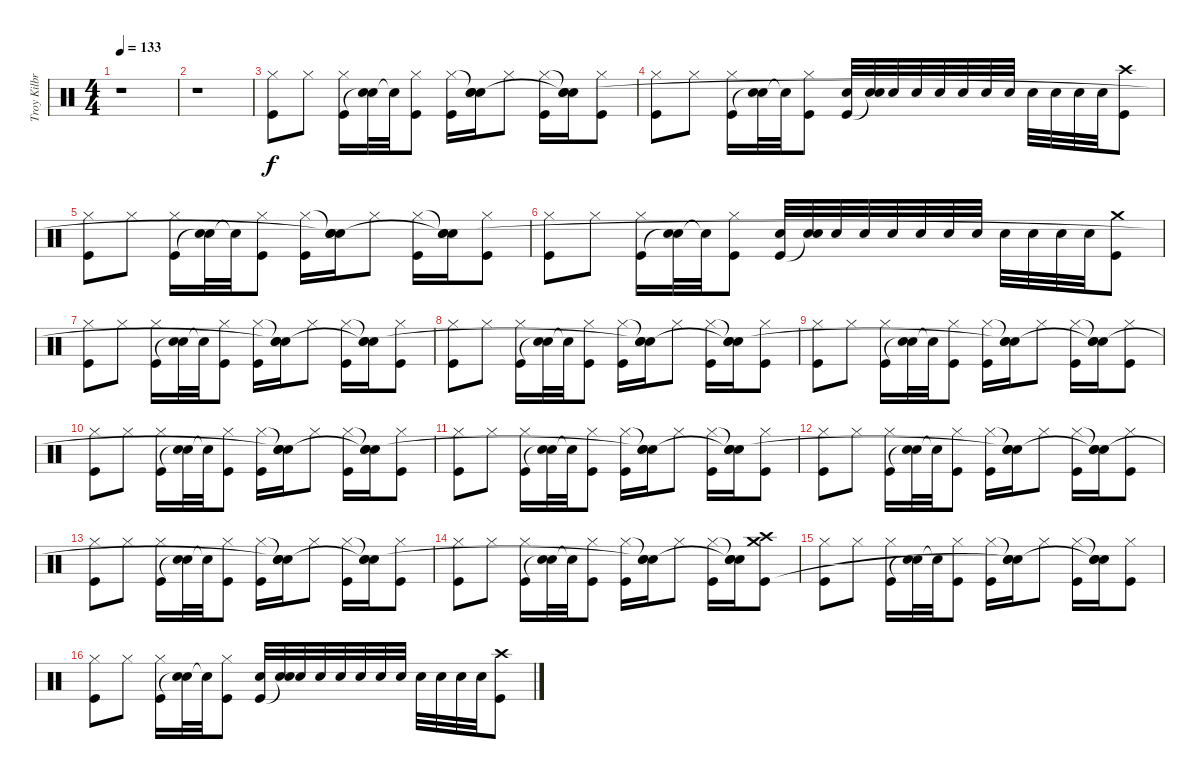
\track ("Troy Kilbride" "Troy Kilbr") {instrument percussion}
\staff {score}
\articulation defaults
\ts (4 4)
\tempo 133
\clef neutral
\ks c
r.1{dy f} |
r.1 |
("Hi-Hat (closed)" "Kick (hit)").8 "Hi-Hat (closed)".8 ("Hi-Hat (closed)" "Kick (hit)").16 ("Electric Snare (hit)" "Snare (hit)"{t}).32 "Snare (hit)"{t}.32 ("Hi-Hat (closed)" "Kick (hit)").8 ("Hi-Hat (closed)" "Kick (hit)").16 ("Snare (hit)"{t} "Electric Snare (hit)" "Snare (hit)").16 "Hi-Hat (closed)".8 ("Hi-Hat (closed)" "Kick (hit)").16 ("Snare (hit)"{t} "Electric Snare (hit)" "Snare (hit)"{t}).16 ("Hi-Hat (closed)" "Kick (hit)").8 |
("Hi-Hat (closed)" "Kick (hit)").8 "Hi-Hat (closed)".8 ("Hi-Hat (closed)" "Kick (hit)").16 ("Electric Snare (hit)" "Snare (hit)"{t}).32 "Snare (hit)"{t}.32 ("Hi-Hat (closed)" "Kick (hit)").8 ("Electric Snare (hit)" "Kick (hit)").32 ("Electric Snare (hit)" "Snare (hit)"{t}).32 "Electric Snare (hit)".32 "Electric Snare (hit)".32 "Electric Snare (hit)".32 "Electric Snare (hit)".32 "Electric Snare (hit)".32 "Electric Snare (hit)".32 "Electric Snare (hit)".32 "Electric Snare (hit)".32 "Electric Snare (hit)".32 "Electric Snare (hit)".32 ("Crash high (hit)" "Kick (hit)").8 |
("Hi-Hat (closed)" "Kick (hit)").8 "Hi-Hat (closed)".8 ("Hi-Hat (closed)" "Kick (hit)").16 ("Electric Snare (hit)" "Snare (hit)"{t}).32 "Snare (hit)"{t}.32 ("Hi-Hat (closed)" "Kick (hit)").8 ("Hi-Hat (closed)" "Kick (hit)").16 ("Snare (hit)"{t} "Electric Snare (hit)" "Snare (hit)"{t}).16 "Hi-Hat (closed)".8 ("Hi-Hat (closed)" "Kick (hit)").16 ("Snare (hit)"{t} "Electric Snare (hit)" "Snare (hit)"{t}).16 ("Hi-Hat (closed)" "Kick (hit)").8 |
("Hi-Hat (closed)" "Kick (hit)").8 "Hi-Hat (closed)".8 ("Hi-Hat (closed)" "Kick (hit)").16 ("Electric Snare (hit)" "Snare (hit)"{t}).32 "Snare (hit)"{t}.32 ("Hi-Hat (closed)" "Kick (hit)").8 ("Electric Snare (hit)" "Kick (hit)").32 ("Electric Snare (hit)" "Snare (hit)"{t}).32 "Electric Snare (hit)".32 "Electric Snare (hit)".32 "Electric Snare (hit)".32 "Electric Snare (hit)".32 "Electric Snare (hit)".32 "Electric Snare (hit)".32 "Electric Snare (hit)".32 "Electric Snare (hit)".32 "Electric Snare (hit)".32 "Electric Snare (hit)".32 ("Crash medium (hit)" "Kick (hit)").8 |
("Hi-Hat (closed)" "Kick (hit)").8 "Hi-Hat (closed)".8 ("Hi-Hat (closed)" "Kick (hit)").16 ("Electric Snare (hit)" "Snare (hit)"{t}).32 "Snare (hit)"{t}.32 ("Hi-Hat (closed)" "Kick (hit)").8 ("Hi-Hat (closed)" "Kick (hit)").16 ("Snare (hit)"{t} "Electric Snare (hit)" "Snare (hit)"{t}).16 "Hi-Hat (closed)".8 ("Hi-Hat (closed)" "Kick (hit)").16 ("Snare (hit)"{t} "Electric Snare (hit)" "Snare (hit)"{t}).16 ("Hi-Hat (closed)" "Kick (hit)").8 |
("Hi-Hat (closed)" "Kick (hit)").8 "Hi-Hat (closed)".8 ("Hi-Hat (closed)" "Kick (hit)").16 ("Electric Snare (hit)" "Snare (hit)"{t}).32 "Snare (hit)"{t}.32 ("Hi-Hat (closed)" "Kick (hit)").8 ("Hi-Hat (closed)" "Kick (hit)").16 ("Snare (hit)"{t} "Electric Snare (hit)" "Snare (hit)"{t}).16 "Hi-Hat (closed)".8 ("Hi-Hat (closed)" "Kick (hit)").16 ("Snare (hit)"{t} "Electric Snare (hit)" "Snare (hit)"{t}).16 ("Hi-Hat (closed)" "Kick (hit)").8 |
("Hi-Hat (closed)" "Kick (hit)").8 "Hi-Hat (closed)".8 ("Hi-Hat (closed)" "Kick (hit)").16 ("Electric Snare (hit)" "Snare (hit)"{t}).32 "Snare (hit)"{t}.32 ("Hi-Hat (closed)" "Kick (hit)").8 ("Hi-Hat (closed)" "Kick (hit)").16 ("Snare (hit)"{t} "Electric Snare (hit)" "Snare (hit)"{t}).16 "Hi-Hat (closed)".8 ("Hi-Hat (closed)" "Kick (hit)").16 ("Snare (hit)"{t} "Electric Snare (hit)" "Snare (hit)"{t}).16 ("Hi-Hat (closed)" "Kick (hit)").8 |
("Hi-Hat (closed)" "Kick (hit)").8 "Hi-Hat (closed)".8 ("Hi-Hat (closed)" "Kick (hit)").16 ("Electric Snare (hit)" "Snare (hit)"{t}).32 "Snare (hit)"{t}.32 ("Hi-Hat (closed)" "Kick (hit)").8 ("Hi-Hat (closed)" "Kick (hit)").16 ("Snare (hit)"{t} "Electric Snare (hit)" "Snare (hit)"{t}).16 "Hi-Hat (closed)".8 ("Hi-Hat (closed)" "Kick (hit)").16 ("Snare (hit)"{t} "Electric Snare (hit)" "Snare (hit)"{t}).16 ("Hi-Hat (closed)" "Kick (hit)").8 |
("Hi-Hat (closed)" "Kick (hit)").8 "Hi-Hat (closed)".8 ("Hi-Hat (closed)" "Kick (hit)").16 ("Electric Snare (hit)" "Snare (hit)"{t}).32 "Snare (hit)"{t}.32 ("Hi-Hat (closed)" "Kick (hit)").8 ("Hi-Hat (closed)" "Kick (hit)").16 ("Snare (hit)"{t} "Electric Snare (hit)" "Snare (hit)"{t}).16 "Hi-Hat (closed)".8 ("Hi-Hat (closed)" "Kick (hit)").16 ("Snare (hit)"{t} "Electric Snare (hit)" "Snare (hit)"{t}).16 ("Hi-Hat (closed)" "Kick (hit)").8 |
("Hi-Hat (closed)" "Kick (hit)").8 "Hi-Hat (closed)".8 ("Hi-Hat (closed)" "Kick (hit)").16 ("Electric Snare (hit)" "Snare (hit)"{t}).32 "Snare (hit)"{t}.32 ("Hi-Hat (closed)" "Kick (hit)").8 ("Hi-Hat (closed)" "Kick (hit)").16 ("Snare (hit)"{t} "Electric Snare (hit)" "Snare (hit)"{t}).16 "Hi-Hat (closed)".8 ("Hi-Hat (closed)" "Kick (hit)").16 ("Snare (hit)"{t} "Electric Snare (hit)" "Snare (hit)"{t}).16 ("Hi-Hat (closed)" "Kick (hit)").8 |
("Hi-Hat (closed)" "Kick (hit)").8 "Hi-Hat (closed)".8 ("Hi-Hat (closed)" "Kick (hit)").16 ("Electric Snare (hit)" "Snare (hit)"{t}).32 "Snare (hit)"{t}.32 ("Hi-Hat (closed)" "Kick (hit)").8 ("Hi-Hat (closed)" "Kick (hit)").16 ("Snare (hit)"{t} "Electric Snare (hit)" "Snare (hit)"{t}).16 "Hi-Hat (closed)".8 ("Hi-Hat (closed)" "Kick (hit)").16 ("Snare (hit)"{t} "Electric Snare (hit)" "Snare (hit)"{t}).16 ("Hi-Hat (closed)" "Kick (hit)").8 |
("Hi-Hat (closed)" "Kick (hit)").8 "Hi-Hat (closed)".8 ("Hi-Hat (closed)" "Kick (hit)").16 ("Electric Snare (hit)" "Snare (hit)"{t}).32 "Snare (hit)"{t}.32 ("Hi-Hat (closed)" "Kick (hit)").8 ("Hi-Hat (closed)" "Kick (hit)").16 ("Snare (hit)"{t} "Electric Snare (hit)" "Snare (hit)"{t}).16 "Hi-Hat (closed)".8 ("Hi-Hat (closed)" "Kick (hit)").16 ("Snare (hit)"{t} "Electric Snare (hit)" "Snare (hit)"{t}).16 ("Crash high (hit)" "Crash medium (hit)" "Kick (hit)").8 |
("Hi-Hat (closed)" "Kick (hit)").8 "Hi-Hat (closed)".8 ("Hi-Hat (closed)" "Kick (hit)").16 ("Electric Snare (hit)" "Snare (hit)"{t}).32 "Snare (hit)"{t}.32 ("Hi-Hat (closed)" "Kick (hit)").8 ("Hi-Hat (closed)" "Kick (hit)").16 ("Snare (hit)"{t} "Electric Snare (hit)" "Snare (hit)"{t}).16 "Hi-Hat (closed)".8 ("Hi-Hat (closed)" "Kick (hit)").16 ("Snare (hit)"{t} "Electric Snare (hit)" "Snare (hit)"{t}).16 ("Hi-Hat (closed)" "Kick (hit)").8 |
("Hi-Hat (closed)" "Kick (hit)").8 "Hi-Hat (closed)".8 ("Hi-Hat (closed)" "Kick (hit)").16 ("Electric Snare (hit)" "Snare (hit)"{t}).32 "Snare (hit)"{t}.32 ("Hi-Hat (closed)" "Kick (hit)").8 ("Electric Snare (hit)" "Kick (hit)").32 ("Electric Snare (hit)" "Snare (hit)"{t}).32 "Electric Snare (hit)".32 "Electric Snare (hit)".32 "Electric Snare (hit)".32 "Electric Snare (hit)".32 "Electric Snare (hit)".32 "Electric Snare (hit)".32 "Electric Snare (hit)".32 "Electric Snare (hit)".32 "Electric Snare (hit)".32 "Electric Snare (hit)".32 ("Crash high (hit)" "Kick (hit)").8
